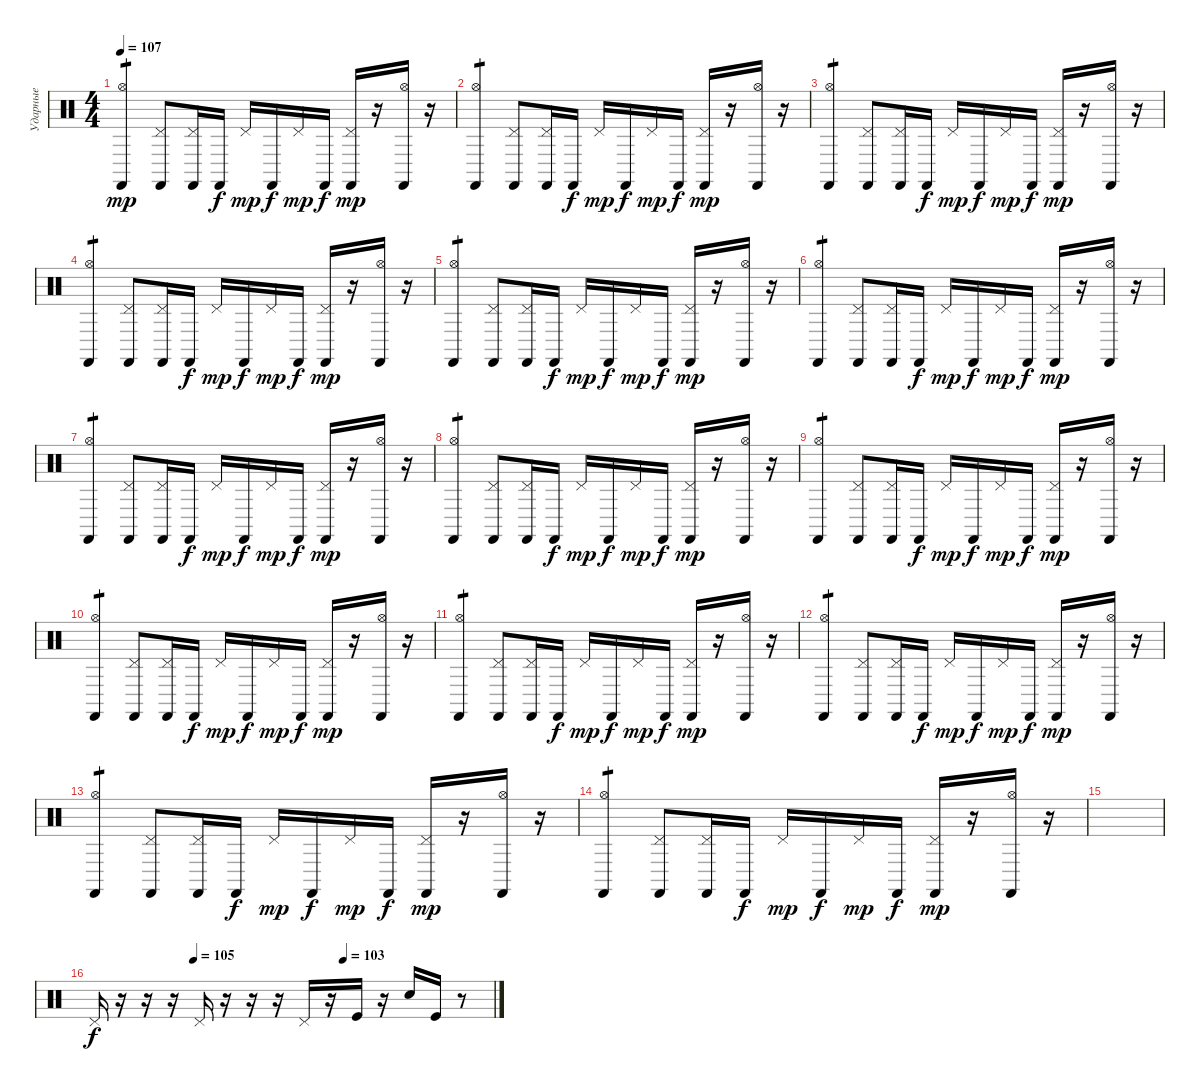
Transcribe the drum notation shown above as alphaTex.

\track ("Ударные" "Ударные") {instrument percussion}
\staff {score}
\articulation defaults
\ts (4 4)
\tempo 107
\clef neutral
\ks c
("Hi-Hat (open)" "Castanets (hit)").4{tp 1 dy mp} ("Pedal Hi-Hat (hit)" "Castanets (hit)").8 ("Pedal Hi-Hat (hit)" "Castanets (hit)").16 "Castanets (hit)".16{dy f} "Pedal Hi-Hat (hit)".16{dy mp} "Castanets (hit)".16{dy f} "Pedal Hi-Hat (hit)".16{dy mp} "Castanets (hit)".16{dy f} ("Pedal Hi-Hat (hit)" "Castanets (hit)").16{dy mp} r.16 ("Hi-Hat (open)" "Castanets (hit)").16 r.16 |
("Hi-Hat (open)" "Castanets (hit)").4{tp 1} ("Pedal Hi-Hat (hit)" "Castanets (hit)").8 ("Pedal Hi-Hat (hit)" "Castanets (hit)").16 "Castanets (hit)".16{dy f} "Pedal Hi-Hat (hit)".16{dy mp} "Castanets (hit)".16{dy f} "Pedal Hi-Hat (hit)".16{dy mp} "Castanets (hit)".16{dy f} ("Pedal Hi-Hat (hit)" "Castanets (hit)").16{dy mp} r.16 ("Hi-Hat (open)" "Castanets (hit)").16 r.16 |
("Hi-Hat (open)" "Castanets (hit)").4{tp 1} ("Pedal Hi-Hat (hit)" "Castanets (hit)").8 ("Pedal Hi-Hat (hit)" "Castanets (hit)").16 "Castanets (hit)".16{dy f} "Pedal Hi-Hat (hit)".16{dy mp} "Castanets (hit)".16{dy f} "Pedal Hi-Hat (hit)".16{dy mp} "Castanets (hit)".16{dy f} ("Pedal Hi-Hat (hit)" "Castanets (hit)").16{dy mp} r.16 ("Hi-Hat (open)" "Castanets (hit)").16 r.16 |
("Hi-Hat (open)" "Castanets (hit)").4{tp 1} ("Pedal Hi-Hat (hit)" "Castanets (hit)").8 ("Pedal Hi-Hat (hit)" "Castanets (hit)").16 "Castanets (hit)".16{dy f} "Pedal Hi-Hat (hit)".16{dy mp} "Castanets (hit)".16{dy f} "Pedal Hi-Hat (hit)".16{dy mp} "Castanets (hit)".16{dy f} ("Pedal Hi-Hat (hit)" "Castanets (hit)").16{dy mp} r.16 ("Hi-Hat (open)" "Castanets (hit)").16 r.16 |
("Hi-Hat (open)" "Castanets (hit)").4{tp 1} ("Pedal Hi-Hat (hit)" "Castanets (hit)").8 ("Pedal Hi-Hat (hit)" "Castanets (hit)").16 "Castanets (hit)".16{dy f} "Pedal Hi-Hat (hit)".16{dy mp} "Castanets (hit)".16{dy f} "Pedal Hi-Hat (hit)".16{dy mp} "Castanets (hit)".16{dy f} ("Pedal Hi-Hat (hit)" "Castanets (hit)").16{dy mp} r.16 ("Hi-Hat (open)" "Castanets (hit)").16 r.16 |
("Hi-Hat (open)" "Castanets (hit)").4{tp 1} ("Pedal Hi-Hat (hit)" "Castanets (hit)").8 ("Pedal Hi-Hat (hit)" "Castanets (hit)").16 "Castanets (hit)".16{dy f} "Pedal Hi-Hat (hit)".16{dy mp} "Castanets (hit)".16{dy f} "Pedal Hi-Hat (hit)".16{dy mp} "Castanets (hit)".16{dy f} ("Pedal Hi-Hat (hit)" "Castanets (hit)").16{dy mp} r.16 ("Hi-Hat (open)" "Castanets (hit)").16 r.16 |
("Hi-Hat (open)" "Castanets (hit)").4{tp 1} ("Pedal Hi-Hat (hit)" "Castanets (hit)").8 ("Pedal Hi-Hat (hit)" "Castanets (hit)").16 "Castanets (hit)".16{dy f} "Pedal Hi-Hat (hit)".16{dy mp} "Castanets (hit)".16{dy f} "Pedal Hi-Hat (hit)".16{dy mp} "Castanets (hit)".16{dy f} ("Pedal Hi-Hat (hit)" "Castanets (hit)").16{dy mp} r.16 ("Hi-Hat (open)" "Castanets (hit)").16 r.16 |
("Hi-Hat (open)" "Castanets (hit)").4{tp 1} ("Pedal Hi-Hat (hit)" "Castanets (hit)").8 ("Pedal Hi-Hat (hit)" "Castanets (hit)").16 "Castanets (hit)".16{dy f} "Pedal Hi-Hat (hit)".16{dy mp} "Castanets (hit)".16{dy f} "Pedal Hi-Hat (hit)".16{dy mp} "Castanets (hit)".16{dy f} ("Pedal Hi-Hat (hit)" "Castanets (hit)").16{dy mp} r.16 ("Hi-Hat (open)" "Castanets (hit)").16 r.16 |
("Hi-Hat (open)" "Castanets (hit)").4{tp 1} ("Pedal Hi-Hat (hit)" "Castanets (hit)").8 ("Pedal Hi-Hat (hit)" "Castanets (hit)").16 "Castanets (hit)".16{dy f} "Pedal Hi-Hat (hit)".16{dy mp} "Castanets (hit)".16{dy f} "Pedal Hi-Hat (hit)".16{dy mp} "Castanets (hit)".16{dy f} ("Pedal Hi-Hat (hit)" "Castanets (hit)").16{dy mp} r.16 ("Hi-Hat (open)" "Castanets (hit)").16 r.16 |
("Hi-Hat (open)" "Castanets (hit)").4{tp 1} ("Pedal Hi-Hat (hit)" "Castanets (hit)").8 ("Pedal Hi-Hat (hit)" "Castanets (hit)").16 "Castanets (hit)".16{dy f} "Pedal Hi-Hat (hit)".16{dy mp} "Castanets (hit)".16{dy f} "Pedal Hi-Hat (hit)".16{dy mp} "Castanets (hit)".16{dy f} ("Pedal Hi-Hat (hit)" "Castanets (hit)").16{dy mp} r.16 ("Hi-Hat (open)" "Castanets (hit)").16 r.16 |
("Hi-Hat (open)" "Castanets (hit)").4{tp 1} ("Pedal Hi-Hat (hit)" "Castanets (hit)").8 ("Pedal Hi-Hat (hit)" "Castanets (hit)").16 "Castanets (hit)".16{dy f} "Pedal Hi-Hat (hit)".16{dy mp} "Castanets (hit)".16{dy f} "Pedal Hi-Hat (hit)".16{dy mp} "Castanets (hit)".16{dy f} ("Pedal Hi-Hat (hit)" "Castanets (hit)").16{dy mp} r.16 ("Hi-Hat (open)" "Castanets (hit)").16 r.16 |
("Hi-Hat (open)" "Castanets (hit)").4{tp 1} ("Pedal Hi-Hat (hit)" "Castanets (hit)").8 ("Pedal Hi-Hat (hit)" "Castanets (hit)").16 "Castanets (hit)".16{dy f} "Pedal Hi-Hat (hit)".16{dy mp} "Castanets (hit)".16{dy f} "Pedal Hi-Hat (hit)".16{dy mp} "Castanets (hit)".16{dy f} ("Pedal Hi-Hat (hit)" "Castanets (hit)").16{dy mp} r.16 ("Hi-Hat (open)" "Castanets (hit)").16 r.16 |
("Hi-Hat (open)" "Castanets (hit)").4{tp 1} ("Pedal Hi-Hat (hit)" "Castanets (hit)").8 ("Pedal Hi-Hat (hit)" "Castanets (hit)").16 "Castanets (hit)".16{dy f} "Pedal Hi-Hat (hit)".16{dy mp} "Castanets (hit)".16{dy f} "Pedal Hi-Hat (hit)".16{dy mp} "Castanets (hit)".16{dy f} ("Pedal Hi-Hat (hit)" "Castanets (hit)").16{dy mp} r.16 ("Hi-Hat (open)" "Castanets (hit)").16 r.16 |
("Hi-Hat (open)" "Castanets (hit)").4{tp 1} ("Pedal Hi-Hat (hit)" "Castanets (hit)").8 ("Pedal Hi-Hat (hit)" "Castanets (hit)").16 "Castanets (hit)".16{dy f} "Pedal Hi-Hat (hit)".16{dy mp} "Castanets (hit)".16{dy f} "Pedal Hi-Hat (hit)".16{dy mp} "Castanets (hit)".16{dy f} ("Pedal Hi-Hat (hit)" "Castanets (hit)").16{dy mp} r.16 ("Hi-Hat (open)" "Castanets (hit)").16 r.16 |
|
\tempo (105 0.25)
\tempo (103 0.625)
"Pedal Hi-Hat (hit)".16{dy f} r.16 r.16 r.16 "Pedal Hi-Hat (hit)".16 r.16 r.16 r.16 "Pedal Hi-Hat (hit)".16 r.16 "Kick (hit)".16 r.16 "Electric Snare (hit)".16 "Kick (hit)".16 r.8
